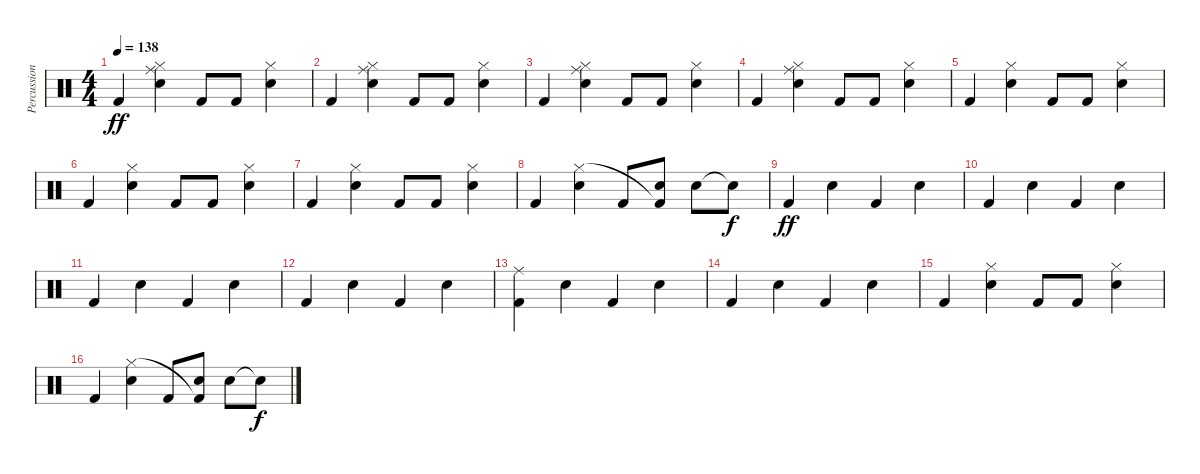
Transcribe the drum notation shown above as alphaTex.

\track ("Percussion" "Percussion") {instrument percussion}
\staff {score}
\articulation defaults
\ts (4 4)
\tempo 138
\clef neutral
\ks c "Kick (hit) 2".4{dy ff}
("Ride (middle)" "Snare (hit) 2" "Hi-Hat (closed)").4 "Kick (hit) 2".8 "Kick (hit) 2".8 ("Snare (hit) 2" "Hi-Hat (closed)").4 |
"Kick (hit) 2".4 ("Ride (middle)" "Snare (hit) 2" "Hi-Hat (closed)").4 "Kick (hit) 2".8 "Kick (hit) 2".8 ("Snare (hit) 2" "Hi-Hat (closed)").4 |
"Kick (hit) 2".4 ("Ride (middle)" "Snare (hit) 2" "Hi-Hat (closed)").4 "Kick (hit) 2".8 "Kick (hit) 2".8 ("Snare (hit) 2" "Hi-Hat (closed)").4 |
"Kick (hit) 2".4 ("Ride (middle)" "Snare (hit) 2" "Hi-Hat (closed)").4 "Kick (hit) 2".8 "Kick (hit) 2".8 ("Snare (hit) 2" "Hi-Hat (closed)").4 |
"Kick (hit) 2".4 ("Snare (hit) 2" "Hi-Hat (closed)").4 "Kick (hit) 2".8 "Kick (hit) 2".8 ("Snare (hit) 2" "Hi-Hat (closed)").4 |
"Kick (hit) 2".4 ("Snare (hit) 2" "Hi-Hat (closed)").4 "Kick (hit) 2".8 "Kick (hit) 2".8 ("Snare (hit) 2" "Hi-Hat (closed)").4 |
"Kick (hit) 2".4 ("Snare (hit) 2" "Hi-Hat (closed)").4 "Kick (hit) 2".8 "Kick (hit) 2".8 ("Snare (hit) 2" "Hi-Hat (closed)").4 |
"Kick (hit) 2".4 ("Snare (hit) 2" "Hi-Hat (closed)").4 "Kick (hit) 2".8 ("Electric Snare (hit)" "Kick (hit) 2"{t}).8 "Electric Snare (hit)".8 "Electric Snare (hit)"{t}.8{dy f} |
"Kick (hit) 2".4{dy ff} "Snare (hit) 2".4 "Kick (hit) 2".4 "Snare (hit) 2".4 |
"Kick (hit) 2".4 "Snare (hit) 2".4 "Kick (hit) 2".4 "Snare (hit) 2".4 |
"Kick (hit) 2".4 "Snare (hit) 2".4 "Kick (hit) 2".4 "Snare (hit) 2".4 |
"Kick (hit) 2".4 "Snare (hit) 2".4 "Kick (hit) 2".4 "Snare (hit) 2".4 |
("Ride (middle)" "Kick (hit) 2").4 "Snare (hit) 2".4 "Kick (hit) 2".4 "Snare (hit) 2".4 |
"Kick (hit) 2".4 "Snare (hit) 2".4 "Kick (hit) 2".4 "Snare (hit) 2".4 |
"Kick (hit) 2".4 ("Snare (hit) 2" "Hi-Hat (closed)").4 "Kick (hit) 2".8 "Kick (hit) 2".8 ("Snare (hit) 2" "Hi-Hat (closed)").4 |
"Kick (hit) 2".4 ("Snare (hit) 2" "Hi-Hat (closed)").4 "Kick (hit) 2".8 ("Electric Snare (hit)" "Kick (hit) 2"{t}).8 "Electric Snare (hit)".8 "Electric Snare (hit)"{t}.8{dy f}
